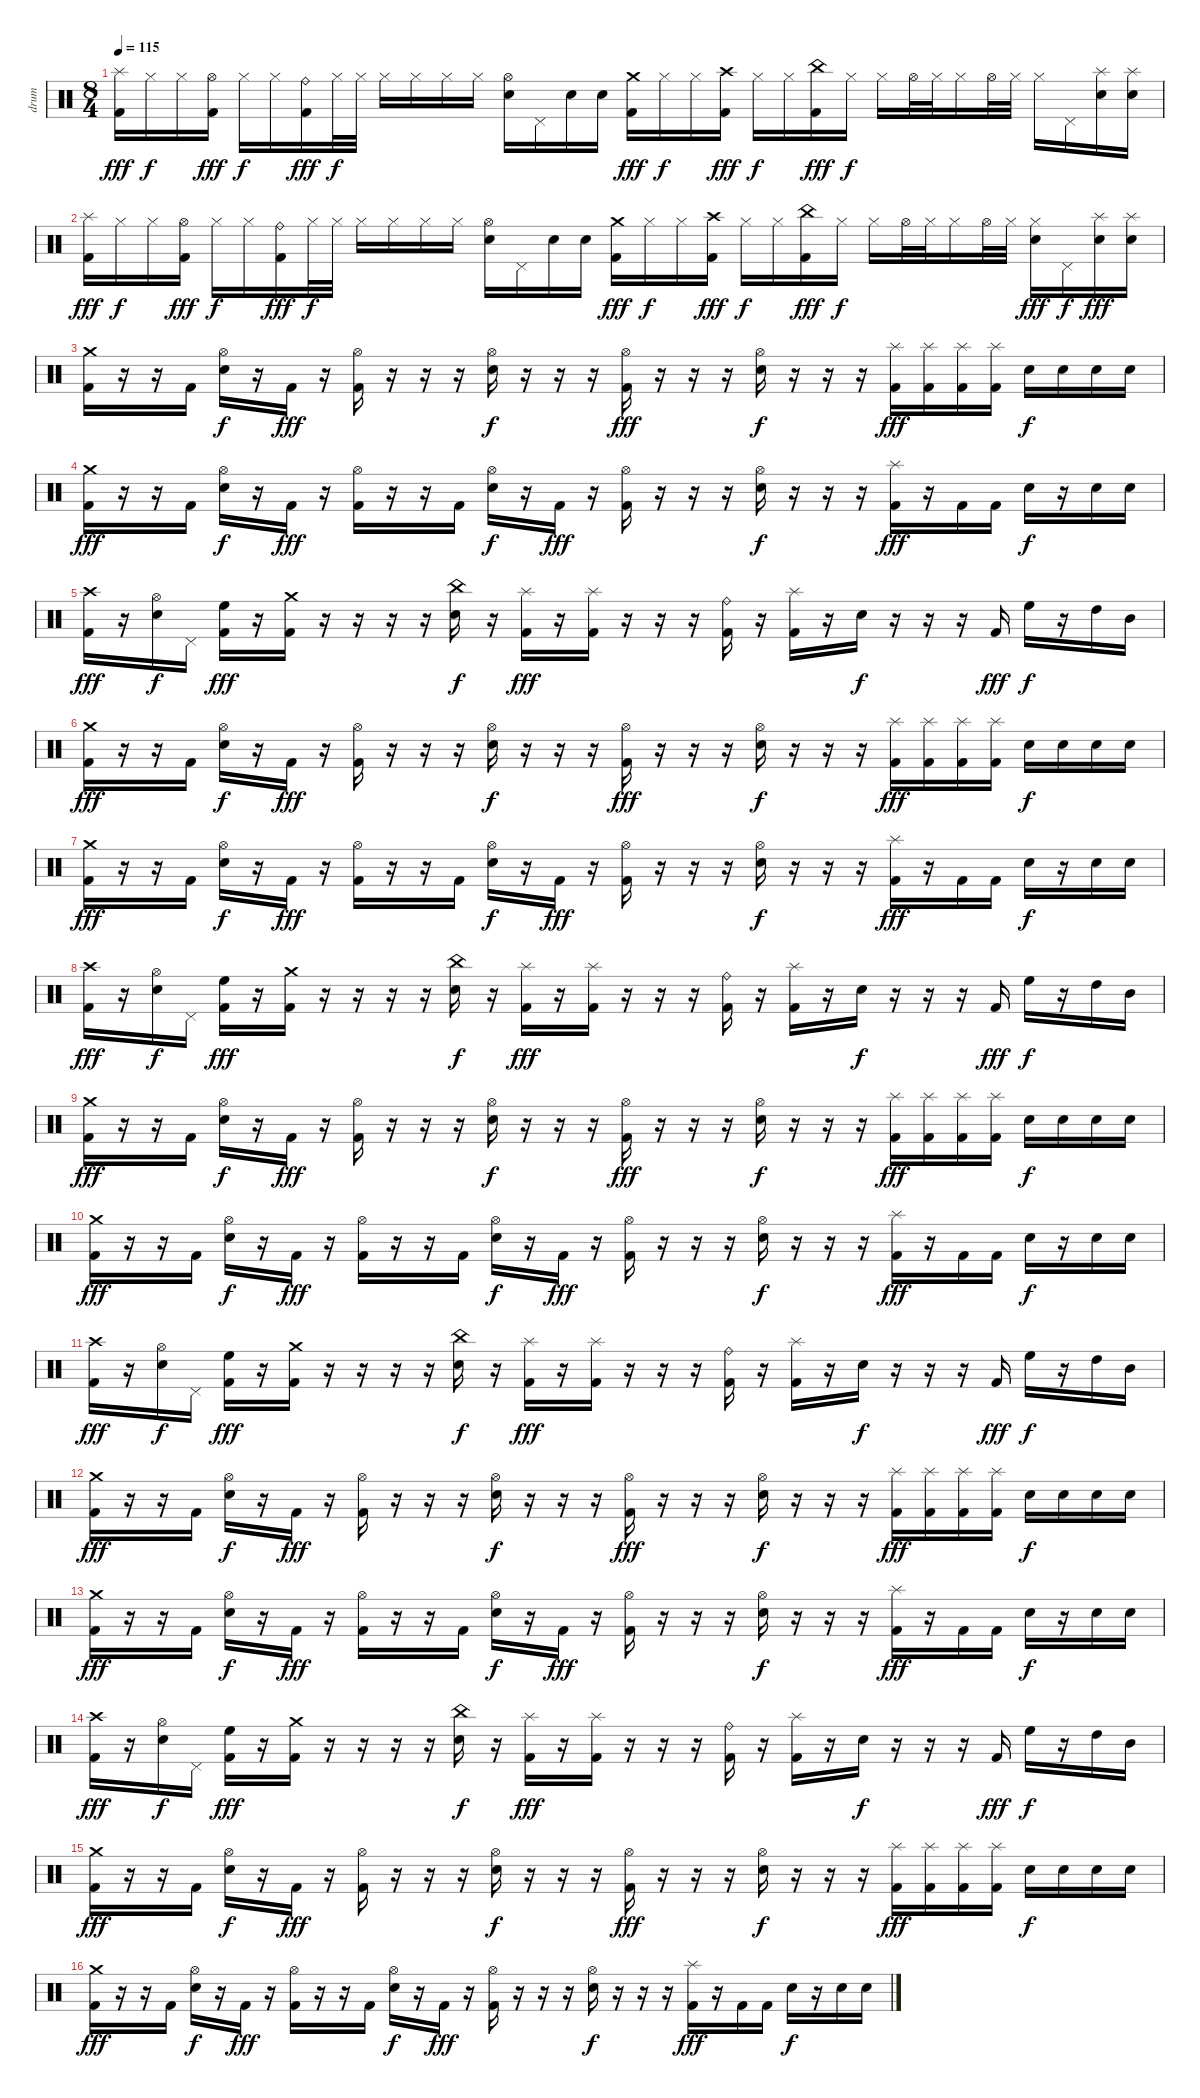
\track ("drum" "drum") {instrument percussion}
\staff {score}
\articulation defaults
\ts (8 4)
\tempo 115
\clef neutral
\ks c
("Splash (hit)" "Kick (hit) 2").16{dy fff} "Hi-Hat (closed)".16{dy f} "Hi-Hat (closed)".16 ("Hi-Hat (open)" "Kick (hit) 2").16{dy fff} "Hi-Hat (closed)".16{dy f} "Hi-Hat (closed)".16 ("Ride (bell)" "Kick (hit) 2").16{dy fff} "Hi-Hat (closed)".32{dy f} "Hi-Hat (closed)".32 "Hi-Hat (closed)".16 "Hi-Hat (closed)".16 "Hi-Hat (closed)".16 "Hi-Hat (closed)".16 ("Hi-Hat (open)" "Electric Snare (hit)").16 "Pedal Hi-Hat (hit)".16 "Electric Snare (hit)".16 "Electric Snare (hit)".16 ("Crash medium (hit)" "Kick (hit) 2").16{dy fff} "Hi-Hat (closed)".16{dy f} "Hi-Hat (closed)".16 ("Crash high (hit)" "Kick (hit) 2").16{dy fff} "Hi-Hat (closed)".16{dy f} "Hi-Hat (closed)".16 ("China (hit)" "Kick (hit) 2").16{dy fff} "Hi-Hat (closed)".16{dy f} "Hi-Hat (closed)".16 "Hi-Hat (open)".32 "Hi-Hat (closed)".32 "Hi-Hat (closed)".16 "Hi-Hat (open)".32 "Hi-Hat (closed)".32 "Hi-Hat (closed)".16 "Pedal Hi-Hat (hit)".16 ("Splash (hit)" "Electric Snare (hit)").16 ("Splash (hit)" "Electric Snare (hit)").16 |
("Splash (hit)" "Kick (hit) 2").16{dy fff} "Hi-Hat (closed)".16{dy f} "Hi-Hat (closed)".16 ("Hi-Hat (open)" "Kick (hit) 2").16{dy fff} "Hi-Hat (closed)".16{dy f} "Hi-Hat (closed)".16 ("Ride (bell)" "Kick (hit) 2").16{dy fff} "Hi-Hat (closed)".32{dy f} "Hi-Hat (closed)".32 "Hi-Hat (closed)".16 "Hi-Hat (closed)".16 "Hi-Hat (closed)".16 "Hi-Hat (closed)".16 ("Hi-Hat (open)" "Electric Snare (hit)").16 "Pedal Hi-Hat (hit)".16 "Electric Snare (hit)".16 "Electric Snare (hit)".16 ("Crash medium (hit)" "Kick (hit) 2").16{dy fff} "Hi-Hat (closed)".16{dy f} "Hi-Hat (closed)".16 ("Crash high (hit)" "Kick (hit) 2").16{dy fff} "Hi-Hat (closed)".16{dy f} "Hi-Hat (closed)".16 ("China (hit)" "Kick (hit) 2").16{dy fff} "Hi-Hat (closed)".16{dy f} "Hi-Hat (closed)".16 "Hi-Hat (open)".32 "Hi-Hat (closed)".32 "Hi-Hat (closed)".16 "Hi-Hat (open)".32 "Hi-Hat (closed)".32 ("Hi-Hat (closed)" "Electric Snare (hit)").16{dy fff} "Pedal Hi-Hat (hit)".16{dy f} ("Splash (hit)" "Electric Snare (hit)").16{dy fff} ("Splash (hit)" "Electric Snare (hit)").16 |
("Crash medium (hit)" "Kick (hit) 2").16 r.16 r.16 "Kick (hit) 2".16 ("Hi-Hat (open)" "Electric Snare (hit)").16{dy f} r.16 "Kick (hit) 2".16{dy fff} r.16 ("Hi-Hat (open)" "Kick (hit) 2").16 r.16 r.16 r.16 ("Hi-Hat (open)" "Electric Snare (hit)").16{dy f} r.16 r.16 r.16 ("Hi-Hat (open)" "Kick (hit) 2").16{dy fff} r.16 r.16 r.16 ("Hi-Hat (open)" "Electric Snare (hit)").16{dy f} r.16 r.16 r.16 ("Splash (hit)" "Kick (hit) 2").16{dy fff} ("Splash (hit)" "Kick (hit) 2").16 ("Splash (hit)" "Kick (hit) 2").16 ("Splash (hit)" "Kick (hit) 2").16 "Electric Snare (hit)".16{dy f} "Electric Snare (hit)".16 "Electric Snare (hit)".16 "Electric Snare (hit)".16 |
("Crash medium (hit)" "Kick (hit) 2").16{dy fff} r.16 r.16 "Kick (hit) 2".16 ("Hi-Hat (open)" "Electric Snare (hit)").16{dy f} r.16 "Kick (hit) 2".16{dy fff} r.16 ("Hi-Hat (open)" "Kick (hit) 2").16 r.16 r.16 "Kick (hit) 2".16 ("Hi-Hat (open)" "Electric Snare (hit)").16{dy f} r.16 "Kick (hit) 2".16{dy fff} r.16 ("Hi-Hat (open)" "Kick (hit) 2").16 r.16 r.16 r.16 ("Hi-Hat (open)" "Electric Snare (hit)").16{dy f} r.16 r.16 r.16 ("Splash (hit)" "Kick (hit) 2").16{dy fff} r.16 "Kick (hit) 2".16 "Kick (hit) 2".16 "Electric Snare (hit)".16{dy f} r.16 "Electric Snare (hit)".16 "Electric Snare (hit)".16 |
("Crash high (hit)" "Kick (hit) 2").16{dy fff} r.16 ("Hi-Hat (open)" "Electric Snare (hit)").16{dy f} "Pedal Hi-Hat (hit)".16 ("High Floor Tom (hit)" "Kick (hit) 2").16{dy fff} r.16 ("Crash medium (hit)" "Kick (hit) 2").16 r.16 r.16 r.16 r.16 ("China (hit)" "Electric Snare (hit)").16{dy f} r.16 ("Splash (hit)" "Kick (hit) 2").16{dy fff} r.16 ("Splash (hit)" "Kick (hit) 2").16 r.16 r.16 r.16 ("Ride (bell)" "Kick (hit) 2").16 r.16 ("Splash (hit)" "Kick (hit) 2").16 r.16 "Electric Snare (hit)".16{dy f} r.16 r.16 r.16 "Kick (hit) 2".16{dy fff} "High Floor Tom (hit)".16{dy f} r.16 "High Tom (hit)".16 "Mid Tom (hit)".16 |
("Crash medium (hit)" "Kick (hit) 2").16{dy fff} r.16 r.16 "Kick (hit) 2".16 ("Hi-Hat (open)" "Electric Snare (hit)").16{dy f} r.16 "Kick (hit) 2".16{dy fff} r.16 ("Hi-Hat (open)" "Kick (hit) 2").16 r.16 r.16 r.16 ("Hi-Hat (open)" "Electric Snare (hit)").16{dy f} r.16 r.16 r.16 ("Hi-Hat (open)" "Kick (hit) 2").16{dy fff} r.16 r.16 r.16 ("Hi-Hat (open)" "Electric Snare (hit)").16{dy f} r.16 r.16 r.16 ("Splash (hit)" "Kick (hit) 2").16{dy fff} ("Splash (hit)" "Kick (hit) 2").16 ("Splash (hit)" "Kick (hit) 2").16 ("Splash (hit)" "Kick (hit) 2").16 "Electric Snare (hit)".16{dy f} "Electric Snare (hit)".16 "Electric Snare (hit)".16 "Electric Snare (hit)".16 |
("Crash medium (hit)" "Kick (hit) 2").16{dy fff} r.16 r.16 "Kick (hit) 2".16 ("Hi-Hat (open)" "Electric Snare (hit)").16{dy f} r.16 "Kick (hit) 2".16{dy fff} r.16 ("Hi-Hat (open)" "Kick (hit) 2").16 r.16 r.16 "Kick (hit) 2".16 ("Hi-Hat (open)" "Electric Snare (hit)").16{dy f} r.16 "Kick (hit) 2".16{dy fff} r.16 ("Hi-Hat (open)" "Kick (hit) 2").16 r.16 r.16 r.16 ("Hi-Hat (open)" "Electric Snare (hit)").16{dy f} r.16 r.16 r.16 ("Splash (hit)" "Kick (hit) 2").16{dy fff} r.16 "Kick (hit) 2".16 "Kick (hit) 2".16 "Electric Snare (hit)".16{dy f} r.16 "Electric Snare (hit)".16 "Electric Snare (hit)".16 |
("Crash high (hit)" "Kick (hit) 2").16{dy fff} r.16 ("Hi-Hat (open)" "Electric Snare (hit)").16{dy f} "Pedal Hi-Hat (hit)".16 ("High Floor Tom (hit)" "Kick (hit) 2").16{dy fff} r.16 ("Crash medium (hit)" "Kick (hit) 2").16 r.16 r.16 r.16 r.16 ("China (hit)" "Electric Snare (hit)").16{dy f} r.16 ("Splash (hit)" "Kick (hit) 2").16{dy fff} r.16 ("Splash (hit)" "Kick (hit) 2").16 r.16 r.16 r.16 ("Ride (bell)" "Kick (hit) 2").16 r.16 ("Splash (hit)" "Kick (hit) 2").16 r.16 "Electric Snare (hit)".16{dy f} r.16 r.16 r.16 "Kick (hit) 2".16{dy fff} "High Floor Tom (hit)".16{dy f} r.16 "High Tom (hit)".16 "Mid Tom (hit)".16 |
("Crash medium (hit)" "Kick (hit) 2").16{dy fff} r.16 r.16 "Kick (hit) 2".16 ("Hi-Hat (open)" "Electric Snare (hit)").16{dy f} r.16 "Kick (hit) 2".16{dy fff} r.16 ("Hi-Hat (open)" "Kick (hit) 2").16 r.16 r.16 r.16 ("Hi-Hat (open)" "Electric Snare (hit)").16{dy f} r.16 r.16 r.16 ("Hi-Hat (open)" "Kick (hit) 2").16{dy fff} r.16 r.16 r.16 ("Hi-Hat (open)" "Electric Snare (hit)").16{dy f} r.16 r.16 r.16 ("Splash (hit)" "Kick (hit) 2").16{dy fff} ("Splash (hit)" "Kick (hit) 2").16 ("Splash (hit)" "Kick (hit) 2").16 ("Splash (hit)" "Kick (hit) 2").16 "Electric Snare (hit)".16{dy f} "Electric Snare (hit)".16 "Electric Snare (hit)".16 "Electric Snare (hit)".16 |
("Crash medium (hit)" "Kick (hit) 2").16{dy fff} r.16 r.16 "Kick (hit) 2".16 ("Hi-Hat (open)" "Electric Snare (hit)").16{dy f} r.16 "Kick (hit) 2".16{dy fff} r.16 ("Hi-Hat (open)" "Kick (hit) 2").16 r.16 r.16 "Kick (hit) 2".16 ("Hi-Hat (open)" "Electric Snare (hit)").16{dy f} r.16 "Kick (hit) 2".16{dy fff} r.16 ("Hi-Hat (open)" "Kick (hit) 2").16 r.16 r.16 r.16 ("Hi-Hat (open)" "Electric Snare (hit)").16{dy f} r.16 r.16 r.16 ("Splash (hit)" "Kick (hit) 2").16{dy fff} r.16 "Kick (hit) 2".16 "Kick (hit) 2".16 "Electric Snare (hit)".16{dy f} r.16 "Electric Snare (hit)".16 "Electric Snare (hit)".16 |
("Crash high (hit)" "Kick (hit) 2").16{dy fff} r.16 ("Hi-Hat (open)" "Electric Snare (hit)").16{dy f} "Pedal Hi-Hat (hit)".16 ("High Floor Tom (hit)" "Kick (hit) 2").16{dy fff} r.16 ("Crash medium (hit)" "Kick (hit) 2").16 r.16 r.16 r.16 r.16 ("China (hit)" "Electric Snare (hit)").16{dy f} r.16 ("Splash (hit)" "Kick (hit) 2").16{dy fff} r.16 ("Splash (hit)" "Kick (hit) 2").16 r.16 r.16 r.16 ("Ride (bell)" "Kick (hit) 2").16 r.16 ("Splash (hit)" "Kick (hit) 2").16 r.16 "Electric Snare (hit)".16{dy f} r.16 r.16 r.16 "Kick (hit) 2".16{dy fff} "High Floor Tom (hit)".16{dy f} r.16 "High Tom (hit)".16 "Mid Tom (hit)".16 |
("Crash medium (hit)" "Kick (hit) 2").16{dy fff} r.16 r.16 "Kick (hit) 2".16 ("Hi-Hat (open)" "Electric Snare (hit)").16{dy f} r.16 "Kick (hit) 2".16{dy fff} r.16 ("Hi-Hat (open)" "Kick (hit) 2").16 r.16 r.16 r.16 ("Hi-Hat (open)" "Electric Snare (hit)").16{dy f} r.16 r.16 r.16 ("Hi-Hat (open)" "Kick (hit) 2").16{dy fff} r.16 r.16 r.16 ("Hi-Hat (open)" "Electric Snare (hit)").16{dy f} r.16 r.16 r.16 ("Splash (hit)" "Kick (hit) 2").16{dy fff} ("Splash (hit)" "Kick (hit) 2").16 ("Splash (hit)" "Kick (hit) 2").16 ("Splash (hit)" "Kick (hit) 2").16 "Electric Snare (hit)".16{dy f} "Electric Snare (hit)".16 "Electric Snare (hit)".16 "Electric Snare (hit)".16 |
("Crash medium (hit)" "Kick (hit) 2").16{dy fff} r.16 r.16 "Kick (hit) 2".16 ("Hi-Hat (open)" "Electric Snare (hit)").16{dy f} r.16 "Kick (hit) 2".16{dy fff} r.16 ("Hi-Hat (open)" "Kick (hit) 2").16 r.16 r.16 "Kick (hit) 2".16 ("Hi-Hat (open)" "Electric Snare (hit)").16{dy f} r.16 "Kick (hit) 2".16{dy fff} r.16 ("Hi-Hat (open)" "Kick (hit) 2").16 r.16 r.16 r.16 ("Hi-Hat (open)" "Electric Snare (hit)").16{dy f} r.16 r.16 r.16 ("Splash (hit)" "Kick (hit) 2").16{dy fff} r.16 "Kick (hit) 2".16 "Kick (hit) 2".16 "Electric Snare (hit)".16{dy f} r.16 "Electric Snare (hit)".16 "Electric Snare (hit)".16 |
("Crash high (hit)" "Kick (hit) 2").16{dy fff} r.16 ("Hi-Hat (open)" "Electric Snare (hit)").16{dy f} "Pedal Hi-Hat (hit)".16 ("High Floor Tom (hit)" "Kick (hit) 2").16{dy fff} r.16 ("Crash medium (hit)" "Kick (hit) 2").16 r.16 r.16 r.16 r.16 ("China (hit)" "Electric Snare (hit)").16{dy f} r.16 ("Splash (hit)" "Kick (hit) 2").16{dy fff} r.16 ("Splash (hit)" "Kick (hit) 2").16 r.16 r.16 r.16 ("Ride (bell)" "Kick (hit) 2").16 r.16 ("Splash (hit)" "Kick (hit) 2").16 r.16 "Electric Snare (hit)".16{dy f} r.16 r.16 r.16 "Kick (hit) 2".16{dy fff} "High Floor Tom (hit)".16{dy f} r.16 "High Tom (hit)".16 "Mid Tom (hit)".16 |
("Crash medium (hit)" "Kick (hit) 2").16{dy fff} r.16 r.16 "Kick (hit) 2".16 ("Hi-Hat (open)" "Electric Snare (hit)").16{dy f} r.16 "Kick (hit) 2".16{dy fff} r.16 ("Hi-Hat (open)" "Kick (hit) 2").16 r.16 r.16 r.16 ("Hi-Hat (open)" "Electric Snare (hit)").16{dy f} r.16 r.16 r.16 ("Hi-Hat (open)" "Kick (hit) 2").16{dy fff} r.16 r.16 r.16 ("Hi-Hat (open)" "Electric Snare (hit)").16{dy f} r.16 r.16 r.16 ("Splash (hit)" "Kick (hit) 2").16{dy fff} ("Splash (hit)" "Kick (hit) 2").16 ("Splash (hit)" "Kick (hit) 2").16 ("Splash (hit)" "Kick (hit) 2").16 "Electric Snare (hit)".16{dy f} "Electric Snare (hit)".16 "Electric Snare (hit)".16 "Electric Snare (hit)".16 |
("Crash medium (hit)" "Kick (hit) 2").16{dy fff} r.16 r.16 "Kick (hit) 2".16 ("Hi-Hat (open)" "Electric Snare (hit)").16{dy f} r.16 "Kick (hit) 2".16{dy fff} r.16 ("Hi-Hat (open)" "Kick (hit) 2").16 r.16 r.16 "Kick (hit) 2".16 ("Hi-Hat (open)" "Electric Snare (hit)").16{dy f} r.16 "Kick (hit) 2".16{dy fff} r.16 ("Hi-Hat (open)" "Kick (hit) 2").16 r.16 r.16 r.16 ("Hi-Hat (open)" "Electric Snare (hit)").16{dy f} r.16 r.16 r.16 ("Splash (hit)" "Kick (hit) 2").16{dy fff} r.16 "Kick (hit) 2".16 "Kick (hit) 2".16 "Electric Snare (hit)".16{dy f} r.16 "Electric Snare (hit)".16 "Electric Snare (hit)".16
